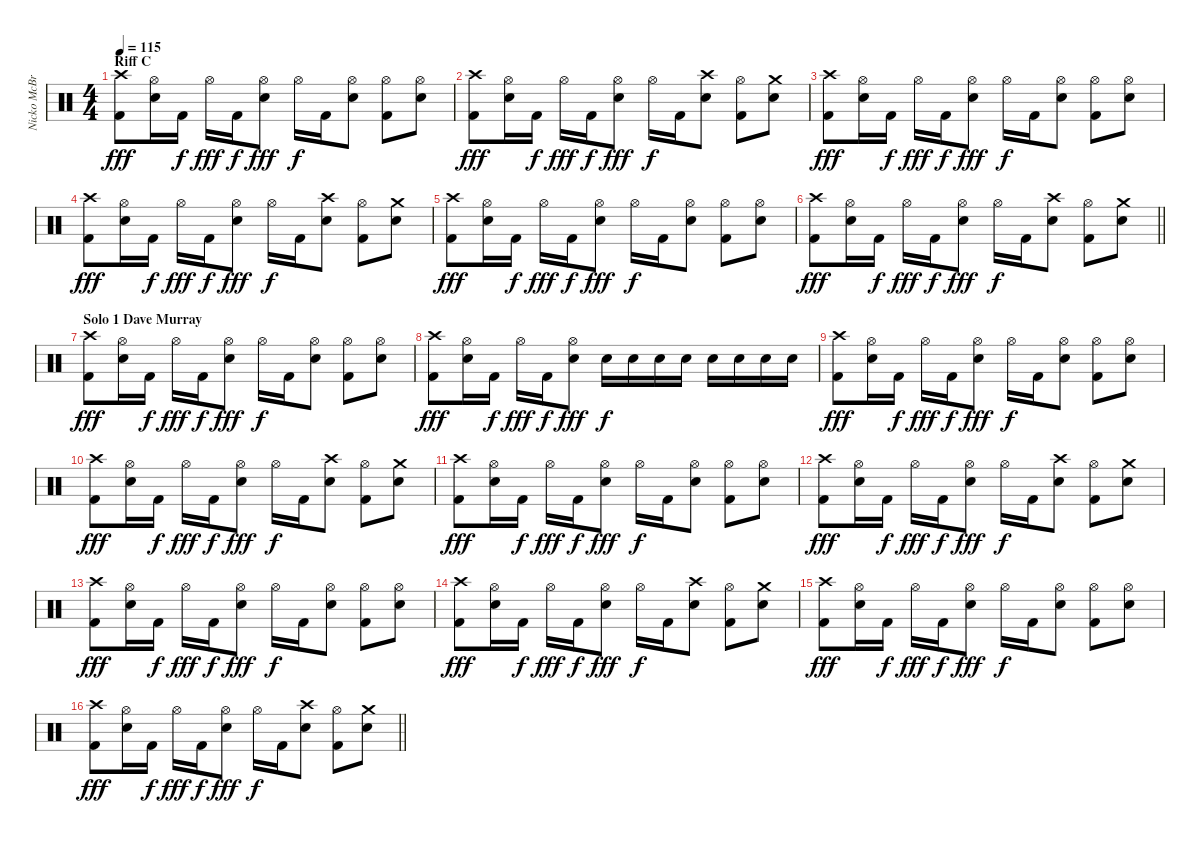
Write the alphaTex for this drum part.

\track ("Nicko McBrain" "Nicko McBr") {instrument percussion}
\staff {score}
\articulation defaults
\ts (4 4)
\section ("" "Riff C")
\tempo 115
\clef neutral
\ks c
("Kick (hit) 2" "Crash high (hit)").8{dy fff} ("Snare (hit) 2" "Hi-Hat (open)").16 "Kick (hit) 2".16{dy f} "Hi-Hat (open)".16{dy fff} "Kick (hit) 2".16{dy f} ("Snare (hit) 2" "Hi-Hat (open)").8{dy fff} "Hi-Hat (open)".16{dy f} "Kick (hit) 2".16 ("Snare (hit) 2" "Hi-Hat (open)").8 ("Kick (hit) 2" "Hi-Hat (open)").8 ("Snare (hit) 2" "Hi-Hat (open)").8 |
("Kick (hit) 2" "Crash high (hit)").8{dy fff} ("Snare (hit) 2" "Hi-Hat (open)").16 "Kick (hit) 2".16{dy f} "Hi-Hat (open)".16{dy fff} "Kick (hit) 2".16{dy f} ("Snare (hit) 2" "Hi-Hat (open)").8{dy fff} "Hi-Hat (open)".16{dy f} "Kick (hit) 2".16 ("Snare (hit) 2" "Crash high (hit)").8 ("Kick (hit) 2" "Hi-Hat (open)").8 ("Snare (hit) 2" "Crash medium (hit)").8 |
("Kick (hit) 2" "Crash high (hit)").8{dy fff} ("Snare (hit) 2" "Hi-Hat (open)").16 "Kick (hit) 2".16{dy f} "Hi-Hat (open)".16{dy fff} "Kick (hit) 2".16{dy f} ("Snare (hit) 2" "Hi-Hat (open)").8{dy fff} "Hi-Hat (open)".16{dy f} "Kick (hit) 2".16 ("Snare (hit) 2" "Hi-Hat (open)").8 ("Kick (hit) 2" "Hi-Hat (open)").8 ("Snare (hit) 2" "Hi-Hat (open)").8 |
("Kick (hit) 2" "Crash high (hit)").8{dy fff} ("Snare (hit) 2" "Hi-Hat (open)").16 "Kick (hit) 2".16{dy f} "Hi-Hat (open)".16{dy fff} "Kick (hit) 2".16{dy f} ("Snare (hit) 2" "Hi-Hat (open)").8{dy fff} "Hi-Hat (open)".16{dy f} "Kick (hit) 2".16 ("Snare (hit) 2" "Crash high (hit)").8 ("Kick (hit) 2" "Hi-Hat (open)").8 ("Snare (hit) 2" "Crash medium (hit)").8 |
("Kick (hit) 2" "Crash high (hit)").8{dy fff} ("Snare (hit) 2" "Hi-Hat (open)").16 "Kick (hit) 2".16{dy f} "Hi-Hat (open)".16{dy fff} "Kick (hit) 2".16{dy f} ("Snare (hit) 2" "Hi-Hat (open)").8{dy fff} "Hi-Hat (open)".16{dy f} "Kick (hit) 2".16 ("Snare (hit) 2" "Hi-Hat (open)").8 ("Kick (hit) 2" "Hi-Hat (open)").8 ("Snare (hit) 2" "Hi-Hat (open)").8 |
\barLineRight lightlight
("Kick (hit) 2" "Crash high (hit)").8{dy fff} ("Snare (hit) 2" "Hi-Hat (open)").16 "Kick (hit) 2".16{dy f} "Hi-Hat (open)".16{dy fff} "Kick (hit) 2".16{dy f} ("Snare (hit) 2" "Hi-Hat (open)").8{dy fff} "Hi-Hat (open)".16{dy f} "Kick (hit) 2".16 ("Snare (hit) 2" "Crash high (hit)").8 ("Kick (hit) 2" "Hi-Hat (open)").8 ("Snare (hit) 2" "Crash medium (hit)").8 |
\section ("" "Solo 1 Dave Murray")
("Kick (hit) 2" "Crash high (hit)").8{dy fff} ("Snare (hit) 2" "Hi-Hat (open)").16 "Kick (hit) 2".16{dy f} "Hi-Hat (open)".16{dy fff} "Kick (hit) 2".16{dy f} ("Snare (hit) 2" "Hi-Hat (open)").8{dy fff} "Hi-Hat (open)".16{dy f} "Kick (hit) 2".16 ("Snare (hit) 2" "Hi-Hat (open)").8 ("Kick (hit) 2" "Hi-Hat (open)").8 ("Snare (hit) 2" "Hi-Hat (open)").8 |
("Kick (hit) 2" "Crash high (hit)").8{dy fff} ("Snare (hit) 2" "Hi-Hat (open)").16 "Kick (hit) 2".16{dy f} "Hi-Hat (open)".16{dy fff} "Kick (hit) 2".16{dy f} ("Snare (hit) 2" "Hi-Hat (open)").8{dy fff} "Snare (hit) 2".16{dy f} "Snare (hit) 2".16 "Snare (hit) 2".16 "Snare (hit) 2".16 "Snare (hit) 2".16 "Snare (hit) 2".16 "Snare (hit) 2".16 "Snare (hit) 2".16 |
("Kick (hit) 2" "Crash high (hit)").8{dy fff} ("Snare (hit) 2" "Hi-Hat (open)").16 "Kick (hit) 2".16{dy f} "Hi-Hat (open)".16{dy fff} "Kick (hit) 2".16{dy f} ("Snare (hit) 2" "Hi-Hat (open)").8{dy fff} "Hi-Hat (open)".16{dy f} "Kick (hit) 2".16 ("Snare (hit) 2" "Hi-Hat (open)").8 ("Kick (hit) 2" "Hi-Hat (open)").8 ("Snare (hit) 2" "Hi-Hat (open)").8 |
("Kick (hit) 2" "Crash high (hit)").8{dy fff} ("Snare (hit) 2" "Hi-Hat (open)").16 "Kick (hit) 2".16{dy f} "Hi-Hat (open)".16{dy fff} "Kick (hit) 2".16{dy f} ("Snare (hit) 2" "Hi-Hat (open)").8{dy fff} "Hi-Hat (open)".16{dy f} "Kick (hit) 2".16 ("Snare (hit) 2" "Crash high (hit)").8 ("Kick (hit) 2" "Hi-Hat (open)").8 ("Snare (hit) 2" "Crash medium (hit)").8 |
("Kick (hit) 2" "Crash high (hit)").8{dy fff} ("Snare (hit) 2" "Hi-Hat (open)").16 "Kick (hit) 2".16{dy f} "Hi-Hat (open)".16{dy fff} "Kick (hit) 2".16{dy f} ("Snare (hit) 2" "Hi-Hat (open)").8{dy fff} "Hi-Hat (open)".16{dy f} "Kick (hit) 2".16 ("Snare (hit) 2" "Hi-Hat (open)").8 ("Kick (hit) 2" "Hi-Hat (open)").8 ("Snare (hit) 2" "Hi-Hat (open)").8 |
("Kick (hit) 2" "Crash high (hit)").8{dy fff} ("Snare (hit) 2" "Hi-Hat (open)").16 "Kick (hit) 2".16{dy f} "Hi-Hat (open)".16{dy fff} "Kick (hit) 2".16{dy f} ("Snare (hit) 2" "Hi-Hat (open)").8{dy fff} "Hi-Hat (open)".16{dy f} "Kick (hit) 2".16 ("Snare (hit) 2" "Crash high (hit)").8 ("Kick (hit) 2" "Hi-Hat (open)").8 ("Snare (hit) 2" "Crash medium (hit)").8 |
("Kick (hit) 2" "Crash high (hit)").8{dy fff} ("Snare (hit) 2" "Hi-Hat (open)").16 "Kick (hit) 2".16{dy f} "Hi-Hat (open)".16{dy fff} "Kick (hit) 2".16{dy f} ("Snare (hit) 2" "Hi-Hat (open)").8{dy fff} "Hi-Hat (open)".16{dy f} "Kick (hit) 2".16 ("Snare (hit) 2" "Hi-Hat (open)").8 ("Kick (hit) 2" "Hi-Hat (open)").8 ("Snare (hit) 2" "Hi-Hat (open)").8 |
("Kick (hit) 2" "Crash high (hit)").8{dy fff} ("Snare (hit) 2" "Hi-Hat (open)").16 "Kick (hit) 2".16{dy f} "Hi-Hat (open)".16{dy fff} "Kick (hit) 2".16{dy f} ("Snare (hit) 2" "Hi-Hat (open)").8{dy fff} "Hi-Hat (open)".16{dy f} "Kick (hit) 2".16 ("Snare (hit) 2" "Crash high (hit)").8 ("Kick (hit) 2" "Hi-Hat (open)").8 ("Snare (hit) 2" "Crash medium (hit)").8 |
("Kick (hit) 2" "Crash high (hit)").8{dy fff} ("Snare (hit) 2" "Hi-Hat (open)").16 "Kick (hit) 2".16{dy f} "Hi-Hat (open)".16{dy fff} "Kick (hit) 2".16{dy f} ("Snare (hit) 2" "Hi-Hat (open)").8{dy fff} "Hi-Hat (open)".16{dy f} "Kick (hit) 2".16 ("Snare (hit) 2" "Hi-Hat (open)").8 ("Kick (hit) 2" "Hi-Hat (open)").8 ("Snare (hit) 2" "Hi-Hat (open)").8 |
\barLineRight lightlight
("Kick (hit) 2" "Crash high (hit)").8{dy fff} ("Snare (hit) 2" "Hi-Hat (open)").16 "Kick (hit) 2".16{dy f} "Hi-Hat (open)".16{dy fff} "Kick (hit) 2".16{dy f} ("Snare (hit) 2" "Hi-Hat (open)").8{dy fff} "Hi-Hat (open)".16{dy f} "Kick (hit) 2".16 ("Snare (hit) 2" "Crash high (hit)").8 ("Kick (hit) 2" "Hi-Hat (open)").8 ("Snare (hit) 2" "Crash medium (hit)").8
